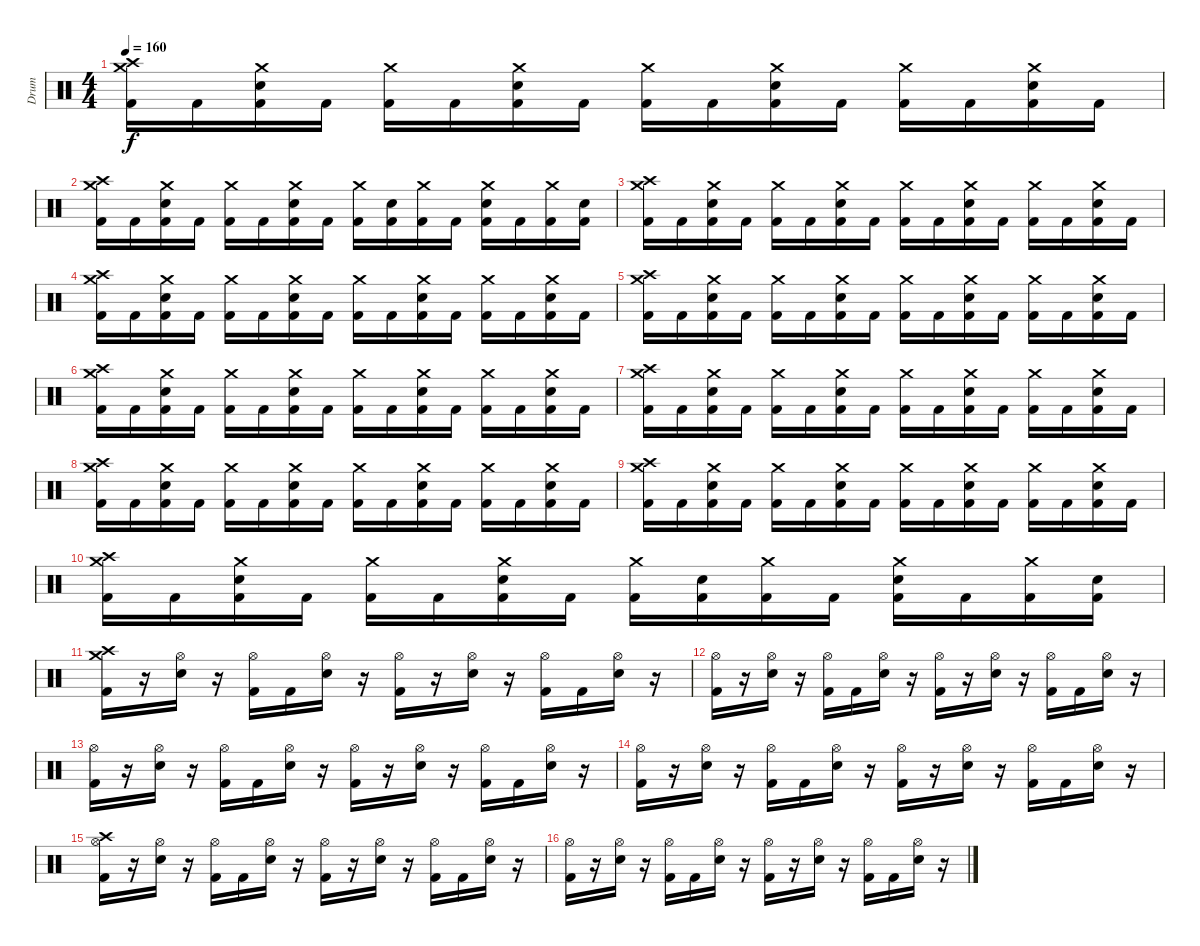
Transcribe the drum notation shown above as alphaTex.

\track ("Drum" "Drum") {instrument percussion}
\staff {score}
\articulation defaults
\ts (4 4)
\tempo 160
\clef neutral
\ks c
("Crash high (hit)" "Crash medium (hit)" "Kick (hit) 2").16{dy f} "Kick (hit) 2".16 ("Crash medium (hit)" "Kick (hit) 2" "Electric Snare (hit)").16 "Kick (hit) 2".16 ("Crash medium (hit)" "Kick (hit) 2").16 "Kick (hit) 2".16 ("Crash medium (hit)" "Kick (hit) 2" "Electric Snare (hit)").16 "Kick (hit) 2".16 ("Crash medium (hit)" "Kick (hit) 2").16 "Kick (hit) 2".16 ("Crash medium (hit)" "Kick (hit) 2" "Electric Snare (hit)").16 "Kick (hit) 2".16 ("Crash medium (hit)" "Kick (hit) 2").16 "Kick (hit) 2".16 ("Crash medium (hit)" "Kick (hit) 2" "Electric Snare (hit)").16 "Kick (hit) 2".16 |
("Crash high (hit)" "Crash medium (hit)" "Kick (hit) 2").16 "Kick (hit) 2".16 ("Crash medium (hit)" "Kick (hit) 2" "Electric Snare (hit)").16 "Kick (hit) 2".16 ("Crash medium (hit)" "Kick (hit) 2").16 "Kick (hit) 2".16 ("Crash medium (hit)" "Kick (hit) 2" "Electric Snare (hit)").16 "Kick (hit) 2".16 ("Crash medium (hit)" "Kick (hit) 2").16 ("Kick (hit) 2" "Electric Snare (hit)").16 ("Crash medium (hit)" "Kick (hit) 2").16 "Kick (hit) 2".16 ("Crash medium (hit)" "Kick (hit) 2" "Electric Snare (hit)").16 "Kick (hit) 2".16 ("Crash medium (hit)" "Kick (hit) 2").16 ("Kick (hit) 2" "Electric Snare (hit)").16 |
("Crash high (hit)" "Crash medium (hit)" "Kick (hit) 2").16 "Kick (hit) 2".16 ("Crash medium (hit)" "Kick (hit) 2" "Electric Snare (hit)").16 "Kick (hit) 2".16 ("Crash medium (hit)" "Kick (hit) 2").16 "Kick (hit) 2".16 ("Crash medium (hit)" "Kick (hit) 2" "Electric Snare (hit)").16 "Kick (hit) 2".16 ("Crash medium (hit)" "Kick (hit) 2").16 "Kick (hit) 2".16 ("Crash medium (hit)" "Kick (hit) 2" "Electric Snare (hit)").16 "Kick (hit) 2".16 ("Crash medium (hit)" "Kick (hit) 2").16 "Kick (hit) 2".16 ("Crash medium (hit)" "Kick (hit) 2" "Electric Snare (hit)").16 "Kick (hit) 2".16 |
("Crash high (hit)" "Crash medium (hit)" "Kick (hit) 2").16 "Kick (hit) 2".16 ("Crash medium (hit)" "Kick (hit) 2" "Electric Snare (hit)").16 "Kick (hit) 2".16 ("Crash medium (hit)" "Kick (hit) 2").16 "Kick (hit) 2".16 ("Crash medium (hit)" "Kick (hit) 2" "Electric Snare (hit)").16 "Kick (hit) 2".16 ("Crash medium (hit)" "Kick (hit) 2").16 "Kick (hit) 2".16 ("Crash medium (hit)" "Kick (hit) 2" "Electric Snare (hit)").16 "Kick (hit) 2".16 ("Crash medium (hit)" "Kick (hit) 2").16 "Kick (hit) 2".16 ("Crash medium (hit)" "Kick (hit) 2" "Electric Snare (hit)").16 "Kick (hit) 2".16 |
("Crash high (hit)" "Crash medium (hit)" "Kick (hit) 2").16 "Kick (hit) 2".16 ("Crash medium (hit)" "Kick (hit) 2" "Electric Snare (hit)").16 "Kick (hit) 2".16 ("Crash medium (hit)" "Kick (hit) 2").16 "Kick (hit) 2".16 ("Crash medium (hit)" "Kick (hit) 2" "Electric Snare (hit)").16 "Kick (hit) 2".16 ("Crash medium (hit)" "Kick (hit) 2").16 "Kick (hit) 2".16 ("Crash medium (hit)" "Kick (hit) 2" "Electric Snare (hit)").16 "Kick (hit) 2".16 ("Crash medium (hit)" "Kick (hit) 2").16 "Kick (hit) 2".16 ("Crash medium (hit)" "Kick (hit) 2" "Electric Snare (hit)").16 "Kick (hit) 2".16 |
("Crash high (hit)" "Crash medium (hit)" "Kick (hit) 2").16 "Kick (hit) 2".16 ("Crash medium (hit)" "Kick (hit) 2" "Electric Snare (hit)").16 "Kick (hit) 2".16 ("Crash medium (hit)" "Kick (hit) 2").16 "Kick (hit) 2".16 ("Crash medium (hit)" "Kick (hit) 2" "Electric Snare (hit)").16 "Kick (hit) 2".16 ("Crash medium (hit)" "Kick (hit) 2").16 "Kick (hit) 2".16 ("Crash medium (hit)" "Kick (hit) 2" "Electric Snare (hit)").16 "Kick (hit) 2".16 ("Crash medium (hit)" "Kick (hit) 2").16 "Kick (hit) 2".16 ("Crash medium (hit)" "Kick (hit) 2" "Electric Snare (hit)").16 "Kick (hit) 2".16 |
("Crash high (hit)" "Crash medium (hit)" "Kick (hit) 2").16 "Kick (hit) 2".16 ("Crash medium (hit)" "Kick (hit) 2" "Electric Snare (hit)").16 "Kick (hit) 2".16 ("Crash medium (hit)" "Kick (hit) 2").16 "Kick (hit) 2".16 ("Crash medium (hit)" "Kick (hit) 2" "Electric Snare (hit)").16 "Kick (hit) 2".16 ("Crash medium (hit)" "Kick (hit) 2").16 "Kick (hit) 2".16 ("Crash medium (hit)" "Kick (hit) 2" "Electric Snare (hit)").16 "Kick (hit) 2".16 ("Crash medium (hit)" "Kick (hit) 2").16 "Kick (hit) 2".16 ("Crash medium (hit)" "Kick (hit) 2" "Electric Snare (hit)").16 "Kick (hit) 2".16 |
("Crash high (hit)" "Crash medium (hit)" "Kick (hit) 2").16 "Kick (hit) 2".16 ("Crash medium (hit)" "Kick (hit) 2" "Electric Snare (hit)").16 "Kick (hit) 2".16 ("Crash medium (hit)" "Kick (hit) 2").16 "Kick (hit) 2".16 ("Crash medium (hit)" "Kick (hit) 2" "Electric Snare (hit)").16 "Kick (hit) 2".16 ("Crash medium (hit)" "Kick (hit) 2").16 "Kick (hit) 2".16 ("Crash medium (hit)" "Kick (hit) 2" "Electric Snare (hit)").16 "Kick (hit) 2".16 ("Crash medium (hit)" "Kick (hit) 2").16 "Kick (hit) 2".16 ("Crash medium (hit)" "Kick (hit) 2" "Electric Snare (hit)").16 "Kick (hit) 2".16 |
("Crash high (hit)" "Crash medium (hit)" "Kick (hit) 2").16 "Kick (hit) 2".16 ("Crash medium (hit)" "Kick (hit) 2" "Electric Snare (hit)").16 "Kick (hit) 2".16 ("Crash medium (hit)" "Kick (hit) 2").16 "Kick (hit) 2".16 ("Crash medium (hit)" "Kick (hit) 2" "Electric Snare (hit)").16 "Kick (hit) 2".16 ("Crash medium (hit)" "Kick (hit) 2").16 "Kick (hit) 2".16 ("Crash medium (hit)" "Kick (hit) 2" "Electric Snare (hit)").16 "Kick (hit) 2".16 ("Crash medium (hit)" "Kick (hit) 2").16 "Kick (hit) 2".16 ("Crash medium (hit)" "Kick (hit) 2" "Electric Snare (hit)").16 "Kick (hit) 2".16 |
("Crash high (hit)" "Crash medium (hit)" "Kick (hit) 2").16 "Kick (hit) 2".16 ("Crash medium (hit)" "Kick (hit) 2" "Electric Snare (hit)").16 "Kick (hit) 2".16 ("Crash medium (hit)" "Kick (hit) 2").16 "Kick (hit) 2".16 ("Crash medium (hit)" "Kick (hit) 2" "Electric Snare (hit)").16 "Kick (hit) 2".16 ("Crash medium (hit)" "Kick (hit) 2").16 ("Kick (hit) 2" "Electric Snare (hit)").16 ("Crash medium (hit)" "Kick (hit) 2").16 "Kick (hit) 2".16 ("Crash medium (hit)" "Kick (hit) 2" "Electric Snare (hit)").16 "Kick (hit) 2".16 ("Crash medium (hit)" "Kick (hit) 2").16 ("Kick (hit) 2" "Electric Snare (hit)").16 |
("Crash high (hit)" "Crash medium (hit)" "Kick (hit) 2").16 r.16 ("Hi-Hat (open)" "Electric Snare (hit)").16 r.16 ("Hi-Hat (open)" "Kick (hit) 2").16 "Kick (hit) 2".16 ("Hi-Hat (open)" "Electric Snare (hit)").16 r.16 ("Hi-Hat (open)" "Kick (hit) 2").16 r.16 ("Hi-Hat (open)" "Electric Snare (hit)").16 r.16 ("Hi-Hat (open)" "Kick (hit) 2").16 "Kick (hit) 2".16 ("Hi-Hat (open)" "Electric Snare (hit)").16 r.16 |
("Hi-Hat (open)" "Kick (hit) 2").16 r.16 ("Hi-Hat (open)" "Electric Snare (hit)").16 r.16 ("Hi-Hat (open)" "Kick (hit) 2").16 "Kick (hit) 2".16 ("Hi-Hat (open)" "Electric Snare (hit)").16 r.16 ("Hi-Hat (open)" "Kick (hit) 2").16 r.16 ("Hi-Hat (open)" "Electric Snare (hit)").16 r.16 ("Hi-Hat (open)" "Kick (hit) 2").16 "Kick (hit) 2".16 ("Hi-Hat (open)" "Electric Snare (hit)").16 r.16 |
("Hi-Hat (open)" "Kick (hit) 2").16 r.16 ("Hi-Hat (open)" "Electric Snare (hit)").16 r.16 ("Hi-Hat (open)" "Kick (hit) 2").16 "Kick (hit) 2".16 ("Hi-Hat (open)" "Electric Snare (hit)").16 r.16 ("Hi-Hat (open)" "Kick (hit) 2").16 r.16 ("Hi-Hat (open)" "Electric Snare (hit)").16 r.16 ("Hi-Hat (open)" "Kick (hit) 2").16 "Kick (hit) 2".16 ("Hi-Hat (open)" "Electric Snare (hit)").16 r.16 |
("Hi-Hat (open)" "Kick (hit) 2").16 r.16 ("Hi-Hat (open)" "Electric Snare (hit)").16 r.16 ("Hi-Hat (open)" "Kick (hit) 2").16 "Kick (hit) 2".16 ("Hi-Hat (open)" "Electric Snare (hit)").16 r.16 ("Hi-Hat (open)" "Kick (hit) 2").16 r.16 ("Hi-Hat (open)" "Electric Snare (hit)").16 r.16 ("Hi-Hat (open)" "Kick (hit) 2").16 "Kick (hit) 2".16 ("Hi-Hat (open)" "Electric Snare (hit)").16 r.16 |
("Crash high (hit)" "Hi-Hat (open)" "Kick (hit) 2").16 r.16 ("Hi-Hat (open)" "Electric Snare (hit)").16 r.16 ("Hi-Hat (open)" "Kick (hit) 2").16 "Kick (hit) 2".16 ("Hi-Hat (open)" "Electric Snare (hit)").16 r.16 ("Hi-Hat (open)" "Kick (hit) 2").16 r.16 ("Hi-Hat (open)" "Electric Snare (hit)").16 r.16 ("Hi-Hat (open)" "Kick (hit) 2").16 "Kick (hit) 2".16 ("Hi-Hat (open)" "Electric Snare (hit)").16 r.16 |
("Hi-Hat (open)" "Kick (hit) 2").16 r.16 ("Hi-Hat (open)" "Electric Snare (hit)").16 r.16 ("Hi-Hat (open)" "Kick (hit) 2").16 "Kick (hit) 2".16 ("Hi-Hat (open)" "Electric Snare (hit)").16 r.16 ("Hi-Hat (open)" "Kick (hit) 2").16 r.16 ("Hi-Hat (open)" "Electric Snare (hit)").16 r.16 ("Hi-Hat (open)" "Kick (hit) 2").16 "Kick (hit) 2".16 ("Hi-Hat (open)" "Electric Snare (hit)").16 r.16
